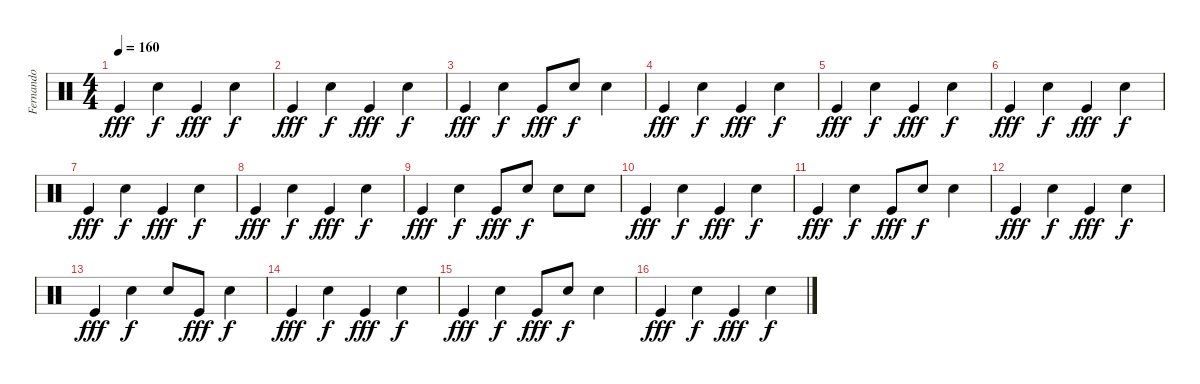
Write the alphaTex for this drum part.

\track ("Fernando" "Fernando") {instrument percussion}
\staff {score}
\articulation defaults
\ts (4 4)
\tempo 160
\clef neutral
\ks c "Kick (hit)".4{dy fff} "Snare (hit) 2".4{dy f} "Kick (hit)".4{dy fff} "Snare (hit) 2".4{dy f}
|
"Kick (hit)".4{dy fff} "Snare (hit) 2".4{dy f} "Kick (hit)".4{dy fff} "Snare (hit) 2".4{dy f} |
"Kick (hit)".4{dy fff} "Snare (hit) 2".4{dy f} "Kick (hit)".8{dy fff} "Snare (hit) 2".8{dy f} "Snare (hit) 2".4 |
"Kick (hit)".4{dy fff} "Snare (hit) 2".4{dy f} "Kick (hit)".4{dy fff} "Snare (hit) 2".4{dy f} |
"Kick (hit)".4{dy fff} "Snare (hit) 2".4{dy f} "Kick (hit)".4{dy fff} "Snare (hit) 2".4{dy f} |
"Kick (hit)".4{dy fff} "Snare (hit) 2".4{dy f} "Kick (hit)".4{dy fff} "Snare (hit) 2".4{dy f} |
"Kick (hit)".4{dy fff} "Snare (hit) 2".4{dy f} "Kick (hit)".4{dy fff} "Snare (hit) 2".4{dy f} |
"Kick (hit)".4{dy fff} "Snare (hit) 2".4{dy f} "Kick (hit)".4{dy fff} "Snare (hit) 2".4{dy f} |
"Kick (hit)".4{dy fff} "Snare (hit) 2".4{dy f} "Kick (hit)".8{dy fff} "Snare (hit) 2".8{dy f} "Snare (hit) 2".8 "Snare (hit) 2".8 |
"Kick (hit)".4{dy fff} "Snare (hit) 2".4{dy f} "Kick (hit)".4{dy fff} "Snare (hit) 2".4{dy f} |
"Kick (hit)".4{dy fff} "Snare (hit) 2".4{dy f} "Kick (hit)".8{dy fff} "Snare (hit) 2".8{dy f} "Snare (hit) 2".4 |
"Kick (hit)".4{dy fff} "Snare (hit) 2".4{dy f} "Kick (hit)".4{dy fff} "Snare (hit) 2".4{dy f} |
"Kick (hit)".4{dy fff} "Snare (hit) 2".4{dy f} "Snare (hit) 2".8 "Kick (hit)".8{dy fff} "Snare (hit) 2".4{dy f} |
"Kick (hit)".4{dy fff} "Snare (hit) 2".4{dy f} "Kick (hit)".4{dy fff} "Snare (hit) 2".4{dy f} |
"Kick (hit)".4{dy fff} "Snare (hit) 2".4{dy f} "Kick (hit)".8{dy fff} "Snare (hit) 2".8{dy f} "Snare (hit) 2".4 |
"Kick (hit)".4{dy fff} "Snare (hit) 2".4{dy f} "Kick (hit)".4{dy fff} "Snare (hit) 2".4{dy f}
